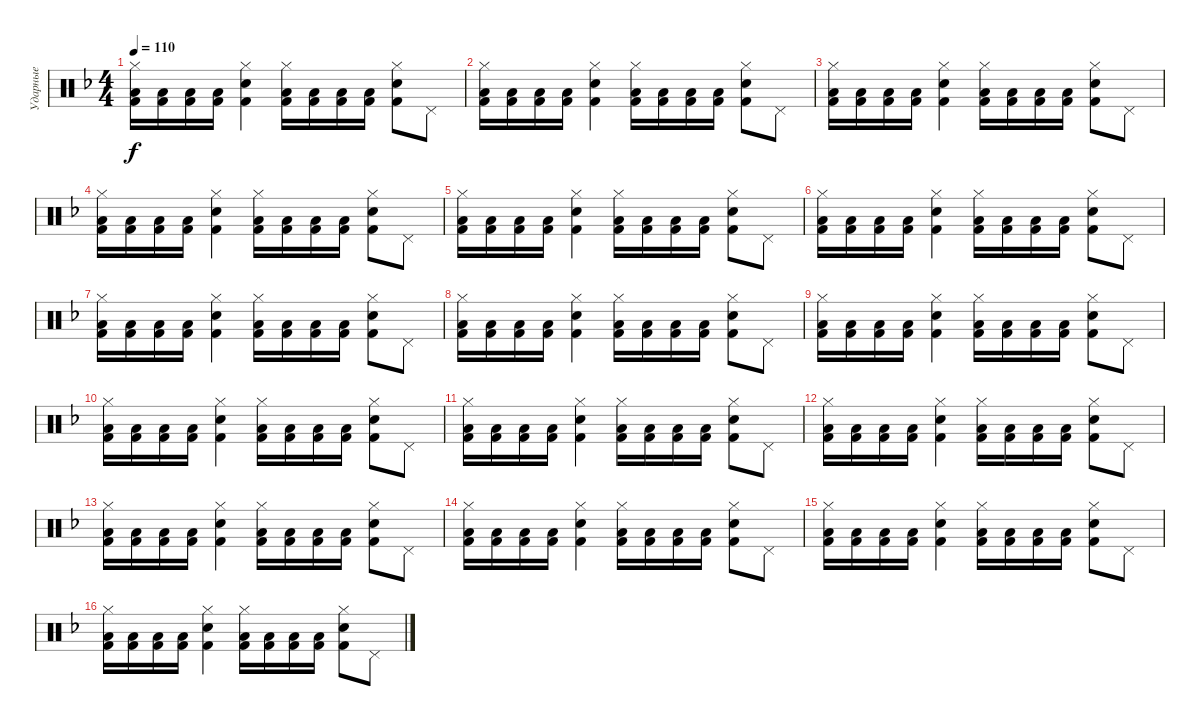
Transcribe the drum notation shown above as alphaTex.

\track ("Ударные" "Ударные") {instrument percussion}
\staff {score}
\articulation defaults
\ts (4 4)
\tempo 110
\clef neutral
\ks dminor
("Hi-Hat (closed)" "Low Tom (hit)" "Kick (hit) 2").16{dy f} ("Low Tom (hit)" "Kick (hit) 2").16 ("Low Tom (hit)" "Kick (hit) 2").16 ("Low Tom (hit)" "Kick (hit) 2").16 ("Hi-Hat (closed)" "Electric Snare (hit)" "Kick (hit) 2").4 ("Hi-Hat (closed)" "Low Tom (hit)" "Kick (hit) 2").16 ("Low Tom (hit)" "Kick (hit) 2").16 ("Low Tom (hit)" "Kick (hit) 2").16 ("Low Tom (hit)" "Kick (hit) 2").16 ("Hi-Hat (closed)" "Electric Snare (hit)" "Kick (hit) 2").8 "Pedal Hi-Hat (hit)".8 |
("Hi-Hat (closed)" "Low Tom (hit)" "Kick (hit) 2").16 ("Low Tom (hit)" "Kick (hit) 2").16 ("Low Tom (hit)" "Kick (hit) 2").16 ("Low Tom (hit)" "Kick (hit) 2").16 ("Hi-Hat (closed)" "Electric Snare (hit)" "Kick (hit) 2").4 ("Hi-Hat (closed)" "Low Tom (hit)" "Kick (hit) 2").16 ("Low Tom (hit)" "Kick (hit) 2").16 ("Low Tom (hit)" "Kick (hit) 2").16 ("Low Tom (hit)" "Kick (hit) 2").16 ("Hi-Hat (closed)" "Electric Snare (hit)" "Kick (hit) 2").8 "Pedal Hi-Hat (hit)".8 |
("Hi-Hat (closed)" "Low Tom (hit)" "Kick (hit) 2").16 ("Low Tom (hit)" "Kick (hit) 2").16 ("Low Tom (hit)" "Kick (hit) 2").16 ("Low Tom (hit)" "Kick (hit) 2").16 ("Hi-Hat (closed)" "Electric Snare (hit)" "Kick (hit) 2").4 ("Hi-Hat (closed)" "Low Tom (hit)" "Kick (hit) 2").16 ("Low Tom (hit)" "Kick (hit) 2").16 ("Low Tom (hit)" "Kick (hit) 2").16 ("Low Tom (hit)" "Kick (hit) 2").16 ("Hi-Hat (closed)" "Electric Snare (hit)" "Kick (hit) 2").8 "Pedal Hi-Hat (hit)".8 |
("Hi-Hat (closed)" "Low Tom (hit)" "Kick (hit) 2").16 ("Low Tom (hit)" "Kick (hit) 2").16 ("Low Tom (hit)" "Kick (hit) 2").16 ("Low Tom (hit)" "Kick (hit) 2").16 ("Hi-Hat (closed)" "Electric Snare (hit)" "Kick (hit) 2").4 ("Hi-Hat (closed)" "Low Tom (hit)" "Kick (hit) 2").16 ("Low Tom (hit)" "Kick (hit) 2").16 ("Low Tom (hit)" "Kick (hit) 2").16 ("Low Tom (hit)" "Kick (hit) 2").16 ("Hi-Hat (closed)" "Electric Snare (hit)" "Kick (hit) 2").8 "Pedal Hi-Hat (hit)".8 |
("Hi-Hat (closed)" "Low Tom (hit)" "Kick (hit) 2").16 ("Low Tom (hit)" "Kick (hit) 2").16 ("Low Tom (hit)" "Kick (hit) 2").16 ("Low Tom (hit)" "Kick (hit) 2").16 ("Hi-Hat (closed)" "Electric Snare (hit)" "Kick (hit) 2").4 ("Hi-Hat (closed)" "Low Tom (hit)" "Kick (hit) 2").16 ("Low Tom (hit)" "Kick (hit) 2").16 ("Low Tom (hit)" "Kick (hit) 2").16 ("Low Tom (hit)" "Kick (hit) 2").16 ("Hi-Hat (closed)" "Electric Snare (hit)" "Kick (hit) 2").8 "Pedal Hi-Hat (hit)".8 |
("Hi-Hat (closed)" "Low Tom (hit)" "Kick (hit) 2").16 ("Low Tom (hit)" "Kick (hit) 2").16 ("Low Tom (hit)" "Kick (hit) 2").16 ("Low Tom (hit)" "Kick (hit) 2").16 ("Hi-Hat (closed)" "Electric Snare (hit)" "Kick (hit) 2").4 ("Hi-Hat (closed)" "Low Tom (hit)" "Kick (hit) 2").16 ("Low Tom (hit)" "Kick (hit) 2").16 ("Low Tom (hit)" "Kick (hit) 2").16 ("Low Tom (hit)" "Kick (hit) 2").16 ("Hi-Hat (closed)" "Electric Snare (hit)" "Kick (hit) 2").8 "Pedal Hi-Hat (hit)".8 |
("Hi-Hat (closed)" "Low Tom (hit)" "Kick (hit) 2").16 ("Low Tom (hit)" "Kick (hit) 2").16 ("Low Tom (hit)" "Kick (hit) 2").16 ("Low Tom (hit)" "Kick (hit) 2").16 ("Hi-Hat (closed)" "Electric Snare (hit)" "Kick (hit) 2").4 ("Hi-Hat (closed)" "Low Tom (hit)" "Kick (hit) 2").16 ("Low Tom (hit)" "Kick (hit) 2").16 ("Low Tom (hit)" "Kick (hit) 2").16 ("Low Tom (hit)" "Kick (hit) 2").16 ("Hi-Hat (closed)" "Electric Snare (hit)" "Kick (hit) 2").8 "Pedal Hi-Hat (hit)".8 |
("Hi-Hat (closed)" "Low Tom (hit)" "Kick (hit) 2").16 ("Low Tom (hit)" "Kick (hit) 2").16 ("Low Tom (hit)" "Kick (hit) 2").16 ("Low Tom (hit)" "Kick (hit) 2").16 ("Hi-Hat (closed)" "Electric Snare (hit)" "Kick (hit) 2").4 ("Hi-Hat (closed)" "Low Tom (hit)" "Kick (hit) 2").16 ("Low Tom (hit)" "Kick (hit) 2").16 ("Low Tom (hit)" "Kick (hit) 2").16 ("Low Tom (hit)" "Kick (hit) 2").16 ("Hi-Hat (closed)" "Electric Snare (hit)" "Kick (hit) 2").8 "Pedal Hi-Hat (hit)".8 |
("Hi-Hat (closed)" "Low Tom (hit)" "Kick (hit) 2").16 ("Low Tom (hit)" "Kick (hit) 2").16 ("Low Tom (hit)" "Kick (hit) 2").16 ("Low Tom (hit)" "Kick (hit) 2").16 ("Hi-Hat (closed)" "Electric Snare (hit)" "Kick (hit) 2").4 ("Hi-Hat (closed)" "Low Tom (hit)" "Kick (hit) 2").16 ("Low Tom (hit)" "Kick (hit) 2").16 ("Low Tom (hit)" "Kick (hit) 2").16 ("Low Tom (hit)" "Kick (hit) 2").16 ("Hi-Hat (closed)" "Electric Snare (hit)" "Kick (hit) 2").8 "Pedal Hi-Hat (hit)".8 |
("Hi-Hat (closed)" "Low Tom (hit)" "Kick (hit) 2").16 ("Low Tom (hit)" "Kick (hit) 2").16 ("Low Tom (hit)" "Kick (hit) 2").16 ("Low Tom (hit)" "Kick (hit) 2").16 ("Hi-Hat (closed)" "Electric Snare (hit)" "Kick (hit) 2").4 ("Hi-Hat (closed)" "Low Tom (hit)" "Kick (hit) 2").16 ("Low Tom (hit)" "Kick (hit) 2").16 ("Low Tom (hit)" "Kick (hit) 2").16 ("Low Tom (hit)" "Kick (hit) 2").16 ("Hi-Hat (closed)" "Electric Snare (hit)" "Kick (hit) 2").8 "Pedal Hi-Hat (hit)".8 |
("Hi-Hat (closed)" "Low Tom (hit)" "Kick (hit) 2").16 ("Low Tom (hit)" "Kick (hit) 2").16 ("Low Tom (hit)" "Kick (hit) 2").16 ("Low Tom (hit)" "Kick (hit) 2").16 ("Hi-Hat (closed)" "Electric Snare (hit)" "Kick (hit) 2").4 ("Hi-Hat (closed)" "Low Tom (hit)" "Kick (hit) 2").16 ("Low Tom (hit)" "Kick (hit) 2").16 ("Low Tom (hit)" "Kick (hit) 2").16 ("Low Tom (hit)" "Kick (hit) 2").16 ("Hi-Hat (closed)" "Electric Snare (hit)" "Kick (hit) 2").8 "Pedal Hi-Hat (hit)".8 |
("Hi-Hat (closed)" "Low Tom (hit)" "Kick (hit) 2").16 ("Low Tom (hit)" "Kick (hit) 2").16 ("Low Tom (hit)" "Kick (hit) 2").16 ("Low Tom (hit)" "Kick (hit) 2").16 ("Hi-Hat (closed)" "Electric Snare (hit)" "Kick (hit) 2").4 ("Hi-Hat (closed)" "Low Tom (hit)" "Kick (hit) 2").16 ("Low Tom (hit)" "Kick (hit) 2").16 ("Low Tom (hit)" "Kick (hit) 2").16 ("Low Tom (hit)" "Kick (hit) 2").16 ("Hi-Hat (closed)" "Electric Snare (hit)" "Kick (hit) 2").8 "Pedal Hi-Hat (hit)".8 |
("Hi-Hat (closed)" "Low Tom (hit)" "Kick (hit) 2").16 ("Low Tom (hit)" "Kick (hit) 2").16 ("Low Tom (hit)" "Kick (hit) 2").16 ("Low Tom (hit)" "Kick (hit) 2").16 ("Hi-Hat (closed)" "Electric Snare (hit)" "Kick (hit) 2").4 ("Hi-Hat (closed)" "Low Tom (hit)" "Kick (hit) 2").16 ("Low Tom (hit)" "Kick (hit) 2").16 ("Low Tom (hit)" "Kick (hit) 2").16 ("Low Tom (hit)" "Kick (hit) 2").16 ("Hi-Hat (closed)" "Electric Snare (hit)" "Kick (hit) 2").8 "Pedal Hi-Hat (hit)".8 |
("Hi-Hat (closed)" "Low Tom (hit)" "Kick (hit) 2").16 ("Low Tom (hit)" "Kick (hit) 2").16 ("Low Tom (hit)" "Kick (hit) 2").16 ("Low Tom (hit)" "Kick (hit) 2").16 ("Hi-Hat (closed)" "Electric Snare (hit)" "Kick (hit) 2").4 ("Hi-Hat (closed)" "Low Tom (hit)" "Kick (hit) 2").16 ("Low Tom (hit)" "Kick (hit) 2").16 ("Low Tom (hit)" "Kick (hit) 2").16 ("Low Tom (hit)" "Kick (hit) 2").16 ("Hi-Hat (closed)" "Electric Snare (hit)" "Kick (hit) 2").8 "Pedal Hi-Hat (hit)".8 |
("Hi-Hat (closed)" "Low Tom (hit)" "Kick (hit) 2").16 ("Low Tom (hit)" "Kick (hit) 2").16 ("Low Tom (hit)" "Kick (hit) 2").16 ("Low Tom (hit)" "Kick (hit) 2").16 ("Hi-Hat (closed)" "Electric Snare (hit)" "Kick (hit) 2").4 ("Hi-Hat (closed)" "Low Tom (hit)" "Kick (hit) 2").16 ("Low Tom (hit)" "Kick (hit) 2").16 ("Low Tom (hit)" "Kick (hit) 2").16 ("Low Tom (hit)" "Kick (hit) 2").16 ("Hi-Hat (closed)" "Electric Snare (hit)" "Kick (hit) 2").8 "Pedal Hi-Hat (hit)".8 |
("Hi-Hat (closed)" "Low Tom (hit)" "Kick (hit) 2").16 ("Low Tom (hit)" "Kick (hit) 2").16 ("Low Tom (hit)" "Kick (hit) 2").16 ("Low Tom (hit)" "Kick (hit) 2").16 ("Hi-Hat (closed)" "Electric Snare (hit)" "Kick (hit) 2").4 ("Hi-Hat (closed)" "Low Tom (hit)" "Kick (hit) 2").16 ("Low Tom (hit)" "Kick (hit) 2").16 ("Low Tom (hit)" "Kick (hit) 2").16 ("Low Tom (hit)" "Kick (hit) 2").16 ("Hi-Hat (closed)" "Electric Snare (hit)" "Kick (hit) 2").8 "Pedal Hi-Hat (hit)".8
